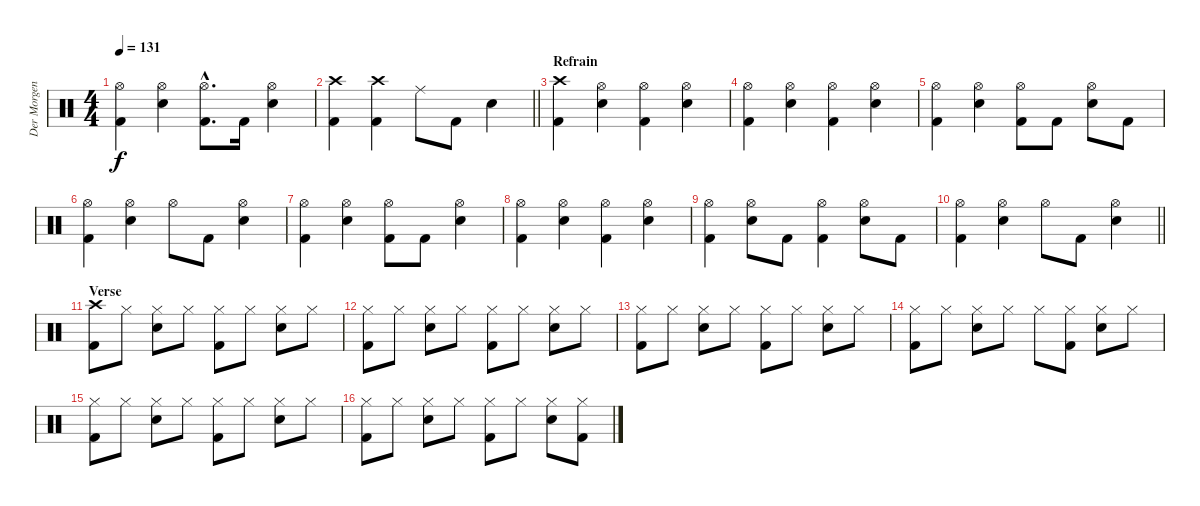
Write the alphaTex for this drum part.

\track ("Der Morgenstern" "Der Morgen") {instrument percussion}
\staff {score}
\articulation defaults
\ts (4 4)
\tempo 131
\clef neutral
\ks c
("Hi-Hat (open)" "Kick (hit) 2").4{dy f} ("Hi-Hat (open)" "Electric Snare (hit)").4 ("Hi-Hat (open)"{hac} "Kick (hit) 2"{hac}).8{d} "Kick (hit) 2".16 ("Hi-Hat (open)" "Electric Snare (hit)").4 |
\barLineRight lightlight
("Crash high (hit)" "Kick (hit) 2").4 ("Crash high (hit)" "Kick (hit) 2").4 "Ride (middle)".8 "Kick (hit) 2".8 "Electric Snare (hit)".4 |
\section ("" "Refrain")
("Crash high (hit)" "Kick (hit) 2").4 ("Hi-Hat (open)" "Electric Snare (hit)").4 ("Hi-Hat (open)" "Kick (hit) 2").4 ("Hi-Hat (open)" "Electric Snare (hit)").4 |
("Hi-Hat (open)" "Kick (hit) 2").4 ("Hi-Hat (open)" "Electric Snare (hit)").4 ("Hi-Hat (open)" "Kick (hit) 2").4 ("Hi-Hat (open)" "Electric Snare (hit)").4 |
("Hi-Hat (open)" "Kick (hit) 2").4 ("Hi-Hat (open)" "Electric Snare (hit)").4 ("Hi-Hat (open)" "Kick (hit) 2").8 "Kick (hit) 2".8 ("Hi-Hat (open)" "Electric Snare (hit)").8 "Kick (hit) 2".8 |
("Hi-Hat (open)" "Kick (hit) 2").4 ("Hi-Hat (open)" "Electric Snare (hit)").4 "Hi-Hat (open)".8 "Kick (hit) 2".8 ("Hi-Hat (open)" "Electric Snare (hit)").4 |
("Hi-Hat (open)" "Kick (hit) 2").4 ("Hi-Hat (open)" "Electric Snare (hit)").4 ("Hi-Hat (open)" "Kick (hit) 2").8 "Kick (hit) 2".8 ("Hi-Hat (open)" "Electric Snare (hit)").4 |
("Hi-Hat (open)" "Kick (hit) 2").4 ("Hi-Hat (open)" "Electric Snare (hit)").4 ("Hi-Hat (open)" "Kick (hit) 2").4 ("Hi-Hat (open)" "Electric Snare (hit)").4 |
("Hi-Hat (open)" "Kick (hit) 2").4 ("Hi-Hat (open)" "Electric Snare (hit)").8 "Kick (hit) 2".8 ("Hi-Hat (open)" "Kick (hit) 2").4 ("Hi-Hat (open)" "Electric Snare (hit)").8 "Kick (hit) 2".8 |
\barLineRight lightlight
("Hi-Hat (open)" "Kick (hit) 2").4 ("Hi-Hat (open)" "Electric Snare (hit)").4 "Hi-Hat (open)".8 "Kick (hit) 2".8 ("Hi-Hat (open)" "Electric Snare (hit)").4 |
\section ("" "Verse")
("Crash high (hit)" "Kick (hit) 2").8 "Hi-Hat (closed)".8 ("Hi-Hat (closed)" "Electric Snare (hit)").8 "Hi-Hat (closed)".8 ("Hi-Hat (closed)" "Kick (hit) 2").8 "Hi-Hat (closed)".8 ("Hi-Hat (closed)" "Electric Snare (hit)").8 "Hi-Hat (closed)".8 |
("Hi-Hat (closed)" "Kick (hit) 2").8 "Hi-Hat (closed)".8 ("Hi-Hat (closed)" "Electric Snare (hit)").8 "Hi-Hat (closed)".8 ("Hi-Hat (closed)" "Kick (hit) 2").8 "Hi-Hat (closed)".8 ("Hi-Hat (closed)" "Electric Snare (hit)").8 "Hi-Hat (closed)".8 |
("Hi-Hat (closed)" "Kick (hit) 2").8 "Hi-Hat (closed)".8 ("Hi-Hat (closed)" "Electric Snare (hit)").8 "Hi-Hat (closed)".8 ("Hi-Hat (closed)" "Kick (hit) 2").8 "Hi-Hat (closed)".8 ("Hi-Hat (closed)" "Electric Snare (hit)").8 "Hi-Hat (closed)".8 |
("Hi-Hat (closed)" "Kick (hit) 2").8 "Hi-Hat (closed)".8 ("Hi-Hat (closed)" "Electric Snare (hit)").8 "Hi-Hat (closed)".8 "Hi-Hat (closed)".8 ("Hi-Hat (closed)" "Kick (hit) 2").8 ("Hi-Hat (closed)" "Electric Snare (hit)").8 "Hi-Hat (closed)".8 |
("Hi-Hat (closed)" "Kick (hit) 2").8 "Hi-Hat (closed)".8 ("Hi-Hat (closed)" "Electric Snare (hit)").8 "Hi-Hat (closed)".8 ("Hi-Hat (closed)" "Kick (hit) 2").8 "Hi-Hat (closed)".8 ("Hi-Hat (closed)" "Electric Snare (hit)").8 "Hi-Hat (closed)".8 |
("Hi-Hat (closed)" "Kick (hit) 2").8 "Hi-Hat (closed)".8 ("Hi-Hat (closed)" "Electric Snare (hit)").8 "Hi-Hat (closed)".8 ("Hi-Hat (closed)" "Kick (hit) 2").8 "Hi-Hat (closed)".8 ("Hi-Hat (closed)" "Electric Snare (hit)").8 ("Hi-Hat (closed)" "Kick (hit) 2").8
